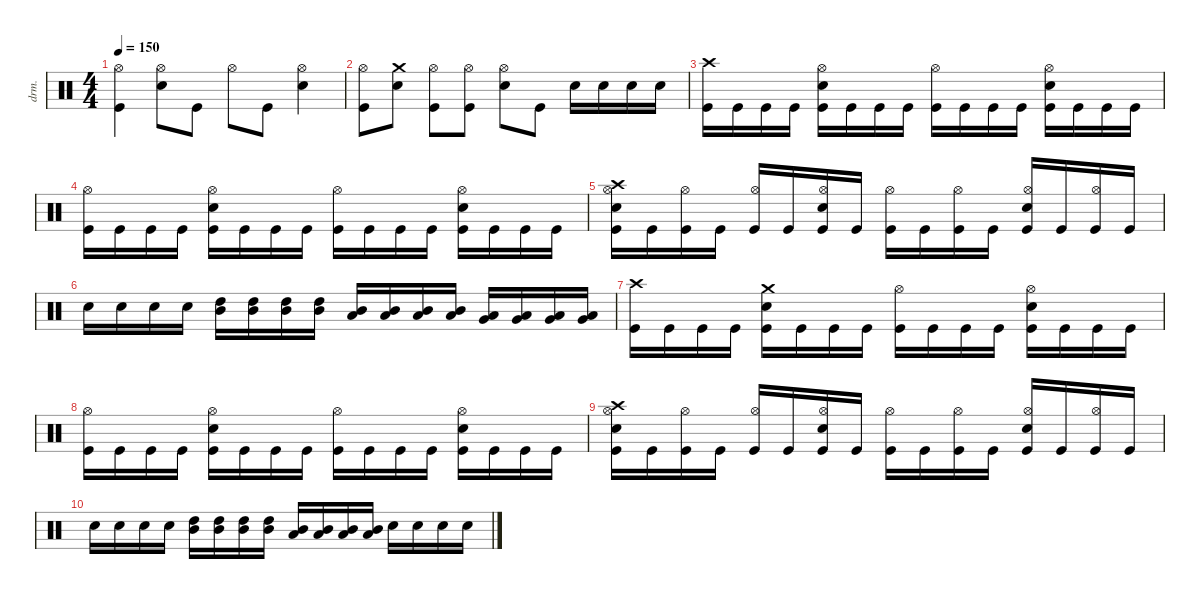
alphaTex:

\defaultSystemsLayout 4
\hideDynamics
\bracketExtendMode nobrackets
\otherSystemsTrackNameOrientation horizontal
\track ("Percussions" "drm.") {instrument percussion}
\staff {score}
\articulation defaults
\ts (4 4)
\tempo 150
\clef neutral
\ks c
("Kick (hit)" "Hi-Hat (open)").4{dy f beam Down} ("Snare (hit) 2" "Hi-Hat (open)").8{beam Down} "Kick (hit)".8{beam Down} "Hi-Hat (open)".8{dy mf beam Down} "Kick (hit)".8{dy f beam Down} ("Snare (hit) 2" "Hi-Hat (open)").4{beam Down} |
("Kick (hit)" "Hi-Hat (open)").8{beam Down} ("Snare (hit) 2" "Crash medium (hit)").8{beam Down} ("Kick (hit)" "Hi-Hat (open)").8{beam Down} ("Kick (hit)" "Hi-Hat (open)").8{beam Down} ("Snare (hit) 2" "Hi-Hat (open)").8{beam Down} "Kick (hit)".8{beam Down} "Snare (hit) 2".16{beam Down} "Snare (hit) 2".16{beam Down} "Snare (hit) 2".16{beam Down} "Snare (hit) 2".16{beam Down} |
("Kick (hit)" "Crash high (hit)").16{dy mf beam Down} "Kick (hit)".16{beam Down} "Kick (hit)".16{beam Down} "Kick (hit)".16{beam Down} ("Kick (hit)" "Snare (hit) 2" "Hi-Hat (open)").16{beam Down} "Kick (hit)".16{beam Down} "Kick (hit)".16{beam Down} "Kick (hit)".16{beam Down} ("Kick (hit)" "Hi-Hat (open)").16{beam Down} "Kick (hit)".16{beam Down} "Kick (hit)".16{beam Down} "Kick (hit)".16{beam Down} ("Kick (hit)" "Snare (hit) 2" "Hi-Hat (open)").16{beam Down} "Kick (hit)".16{beam Down} "Kick (hit)".16{beam Down} "Kick (hit)".16{beam Down} |
("Kick (hit)" "Hi-Hat (open)").16{beam Down} "Kick (hit)".16{beam Down} "Kick (hit)".16{beam Down} "Kick (hit)".16{beam Down} ("Kick (hit)" "Snare (hit) 2" "Hi-Hat (open)").16{beam Down} "Kick (hit)".16{beam Down} "Kick (hit)".16{beam Down} "Kick (hit)".16{beam Down} ("Kick (hit)" "Hi-Hat (open)").16{beam Down} "Kick (hit)".16{beam Down} "Kick (hit)".16{beam Down} "Kick (hit)".16{beam Down} ("Kick (hit)" "Snare (hit) 2" "Hi-Hat (open)").16{beam Down} "Kick (hit)".16{beam Down} "Kick (hit)".16{beam Down} "Kick (hit)".16{beam Down} |
("Kick (hit)" "Snare (hit) 2" "Hi-Hat (open)" "Crash high (hit)").16{beam Down} "Kick (hit)".16{beam Down} ("Kick (hit)" "Hi-Hat (open)").16{beam Down} "Kick (hit)".16{beam Down} ("Kick (hit)" "Hi-Hat (open)").16{beam Up} "Kick (hit)".16{beam Up} ("Kick (hit)" "Snare (hit) 2" "Hi-Hat (open)").16{beam Up} "Kick (hit)".16{beam Up} ("Kick (hit)" "Hi-Hat (open)").16{beam Down} "Kick (hit)".16{beam Down} ("Kick (hit)" "Hi-Hat (open)").16{beam Down} "Kick (hit)".16{beam Down} ("Kick (hit)" "Snare (hit) 2" "Hi-Hat (open)").16{beam Up} "Kick (hit)".16{beam Up} ("Kick (hit)" "Hi-Hat (open)").16{beam Up} "Kick (hit)".16{beam Up} |
"Snare (hit) 2".16{dy f beam Down} "Snare (hit) 2".16{beam Down} "Snare (hit) 2".16{beam Down} "Snare (hit) 2".16{beam Down} ("High Tom (hit)" "Mid Tom (hit)").16{dy p beam Down} ("High Tom (hit)" "Mid Tom (hit)").16{beam Down} ("High Tom (hit)" "Mid Tom (hit)").16{beam Down} ("High Tom (hit)" "Mid Tom (hit)").16{beam Down} ("Mid Tom (hit)" "Low Tom (hit)").16{beam Up} ("Mid Tom (hit)" "Low Tom (hit)").16{beam Up} ("Mid Tom (hit)" "Low Tom (hit)").16{beam Up} ("Mid Tom (hit)" "Low Tom (hit)").16{beam Up} ("Low Tom (hit)" "Very Low Tom (hit)").16{beam Up} ("Low Tom (hit)" "Very Low Tom (hit)").16{beam Up} ("Low Tom (hit)" "Very Low Tom (hit)").16{beam Up} ("Low Tom (hit)" "Very Low Tom (hit)").16{beam Up} |
("Kick (hit)" "Crash high (hit)").16{dy mf beam Down} "Kick (hit)".16{beam Down} "Kick (hit)".16{beam Down} "Kick (hit)".16{beam Down} ("Kick (hit)" "Snare (hit) 2" "Crash medium (hit)").16{beam Down} "Kick (hit)".16{beam Down} "Kick (hit)".16{beam Down} "Kick (hit)".16{beam Down} ("Kick (hit)" "Hi-Hat (open)").16{beam Down} "Kick (hit)".16{beam Down} "Kick (hit)".16{beam Down} "Kick (hit)".16{beam Down} ("Kick (hit)" "Snare (hit) 2" "Hi-Hat (open)").16{beam Down} "Kick (hit)".16{beam Down} "Kick (hit)".16{beam Down} "Kick (hit)".16{beam Down} |
("Kick (hit)" "Hi-Hat (open)").16{beam Down} "Kick (hit)".16{beam Down} "Kick (hit)".16{beam Down} "Kick (hit)".16{beam Down} ("Kick (hit)" "Snare (hit) 2" "Hi-Hat (open)").16{beam Down} "Kick (hit)".16{beam Down} "Kick (hit)".16{beam Down} "Kick (hit)".16{beam Down} ("Kick (hit)" "Hi-Hat (open)").16{beam Down} "Kick (hit)".16{beam Down} "Kick (hit)".16{beam Down} "Kick (hit)".16{beam Down} ("Kick (hit)" "Snare (hit) 2" "Hi-Hat (open)").16{beam Down} "Kick (hit)".16{beam Down} "Kick (hit)".16{beam Down} "Kick (hit)".16{beam Down} |
("Kick (hit)" "Snare (hit) 2" "Hi-Hat (open)" "Crash high (hit)").16{beam Down} "Kick (hit)".16{beam Down} ("Kick (hit)" "Hi-Hat (open)").16{beam Down} "Kick (hit)".16{beam Down} ("Kick (hit)" "Hi-Hat (open)").16{beam Up} "Kick (hit)".16{beam Up} ("Kick (hit)" "Snare (hit) 2" "Hi-Hat (open)").16{beam Up} "Kick (hit)".16{beam Up} ("Kick (hit)" "Hi-Hat (open)").16{beam Down} "Kick (hit)".16{beam Down} ("Kick (hit)" "Hi-Hat (open)").16{beam Down} "Kick (hit)".16{beam Down} ("Kick (hit)" "Snare (hit) 2" "Hi-Hat (open)").16{beam Up} "Kick (hit)".16{beam Up} ("Kick (hit)" "Hi-Hat (open)").16{beam Up} "Kick (hit)".16{beam Up} |
"Snare (hit) 2".16{dy f beam Down} "Snare (hit) 2".16{beam Down} "Snare (hit) 2".16{beam Down} "Snare (hit) 2".16{beam Down} ("High Tom (hit)" "Mid Tom (hit)").16{dy p beam Down} ("High Tom (hit)" "Mid Tom (hit)").16{beam Down} ("High Tom (hit)" "Mid Tom (hit)").16{beam Down} ("High Tom (hit)" "Mid Tom (hit)").16{beam Down} ("Mid Tom (hit)" "Low Tom (hit)").16{beam Up} ("Mid Tom (hit)" "Low Tom (hit)").16{beam Up} ("Mid Tom (hit)" "Low Tom (hit)").16{beam Up} ("Mid Tom (hit)" "Low Tom (hit)").16{beam Up} "Snare (hit) 2".16{dy f beam Down} "Snare (hit) 2".16{beam Down} "Snare (hit) 2".16{beam Down} "Snare (hit) 2".16{beam Down}
